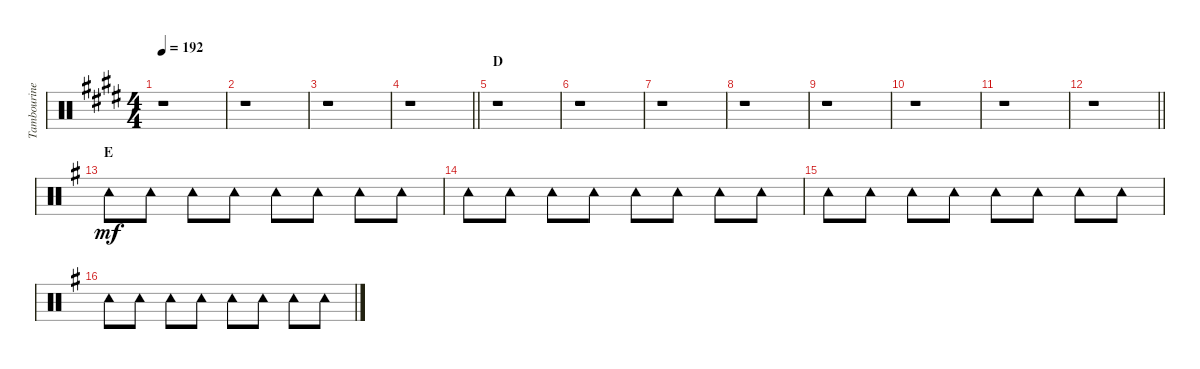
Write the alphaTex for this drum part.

\track ("Tambourine" "Tambourine") {instrument percussion}
\staff {score}
\articulation defaults
\ts (4 4)
\tempo 192
\clef neutral
\ks e
r.1{dy mf} |
r.1 |
r.1 |
\barLineRight lightlight
r.1 |
\section ("" "D")
r.1 |
r.1 |
r.1 |
r.1 |
r.1 |
r.1 |
r.1 |
\barLineRight lightlight
r.1 |
\section ("" "E")
\ks g "Tambourine (hit)".8 "Tambourine (hit)".8 "Tambourine (hit)".8 "Tambourine (hit)".8 "Tambourine (hit)".8 "Tambourine (hit)".8 "Tambourine (hit)".8 "Tambourine (hit)".8
|
"Tambourine (hit)".8 "Tambourine (hit)".8 "Tambourine (hit)".8 "Tambourine (hit)".8 "Tambourine (hit)".8 "Tambourine (hit)".8 "Tambourine (hit)".8 "Tambourine (hit)".8 |
"Tambourine (hit)".8 "Tambourine (hit)".8 "Tambourine (hit)".8 "Tambourine (hit)".8 "Tambourine (hit)".8 "Tambourine (hit)".8 "Tambourine (hit)".8 "Tambourine (hit)".8 |
"Tambourine (hit)".8 "Tambourine (hit)".8 "Tambourine (hit)".8 "Tambourine (hit)".8 "Tambourine (hit)".8 "Tambourine (hit)".8 "Tambourine (hit)".8 "Tambourine (hit)".8
